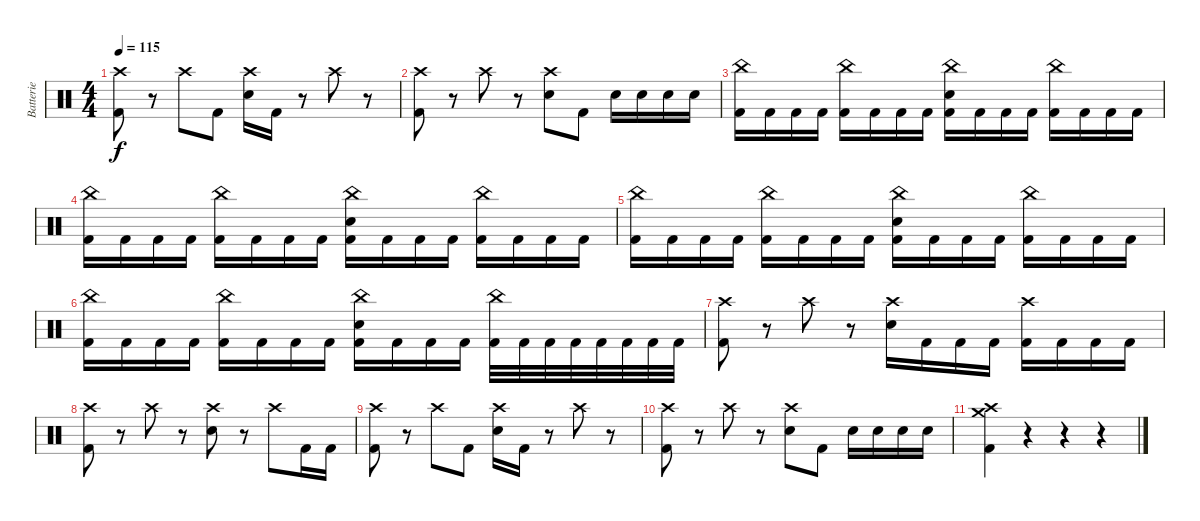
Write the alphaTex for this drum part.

\track ("Batterie" "Batterie") {instrument percussion}
\staff {score}
\articulation defaults
\ts (4 4)
\tempo 115
\clef neutral
\ks c
("Kick (hit) 2" "Crash high (hit)").8{dy f} r.8 "Crash high (hit)".8 "Kick (hit) 2".8 ("Electric Snare (hit)" "Crash high (hit)").16 "Kick (hit) 2".16 r.8 "Crash high (hit)".8 r.8 |
("Kick (hit) 2" "Crash high (hit)").8 r.8 "Crash high (hit)".8 r.8 ("Electric Snare (hit)" "Crash high (hit)").8 "Kick (hit) 2".8 "Electric Snare (hit)".16 "Electric Snare (hit)".16 "Electric Snare (hit)".16 "Electric Snare (hit)".16 |
("Kick (hit) 2" "China (hit)").16 "Kick (hit) 2".16 "Kick (hit) 2".16 "Kick (hit) 2".16 ("Kick (hit) 2" "China (hit)").16 "Kick (hit) 2".16 "Kick (hit) 2".16 "Kick (hit) 2".16 ("Kick (hit) 2" "Electric Snare (hit)" "China (hit)").16 "Kick (hit) 2".16 "Kick (hit) 2".16 "Kick (hit) 2".16 ("Kick (hit) 2" "China (hit)").16 "Kick (hit) 2".16 "Kick (hit) 2".16 "Kick (hit) 2".16 |
("Kick (hit) 2" "China (hit)").16 "Kick (hit) 2".16 "Kick (hit) 2".16 "Kick (hit) 2".16 ("Kick (hit) 2" "China (hit)").16 "Kick (hit) 2".16 "Kick (hit) 2".16 "Kick (hit) 2".16 ("Kick (hit) 2" "Electric Snare (hit)" "China (hit)").16 "Kick (hit) 2".16 "Kick (hit) 2".16 "Kick (hit) 2".16 ("Kick (hit) 2" "China (hit)").16 "Kick (hit) 2".16 "Kick (hit) 2".16 "Kick (hit) 2".16 |
("Kick (hit) 2" "China (hit)").16 "Kick (hit) 2".16 "Kick (hit) 2".16 "Kick (hit) 2".16 ("Kick (hit) 2" "China (hit)").16 "Kick (hit) 2".16 "Kick (hit) 2".16 "Kick (hit) 2".16 ("Kick (hit) 2" "Electric Snare (hit)" "China (hit)").16 "Kick (hit) 2".16 "Kick (hit) 2".16 "Kick (hit) 2".16 ("Kick (hit) 2" "China (hit)").16 "Kick (hit) 2".16 "Kick (hit) 2".16 "Kick (hit) 2".16 |
("Kick (hit) 2" "China (hit)").16 "Kick (hit) 2".16 "Kick (hit) 2".16 "Kick (hit) 2".16 ("Kick (hit) 2" "China (hit)").16 "Kick (hit) 2".16 "Kick (hit) 2".16 "Kick (hit) 2".16 ("Kick (hit) 2" "Electric Snare (hit)" "China (hit)").16 "Kick (hit) 2".16 "Kick (hit) 2".16 "Kick (hit) 2".16 ("Kick (hit) 2" "China (hit)").32 "Kick (hit) 2".32 "Kick (hit) 2".32 "Kick (hit) 2".32 "Kick (hit) 2".32 "Kick (hit) 2".32 "Kick (hit) 2".32 "Kick (hit) 2".32 |
("Kick (hit) 2" "Crash high (hit)").8 r.8 "Crash high (hit)".8 r.8 ("Electric Snare (hit)" "Crash high (hit)").16 "Kick (hit) 2".16 "Kick (hit) 2".16 "Kick (hit) 2".16 ("Kick (hit) 2" "Crash high (hit)").16 "Kick (hit) 2".16 "Kick (hit) 2".16 "Kick (hit) 2".16 |
("Kick (hit) 2" "Crash high (hit)").8 r.8 "Crash high (hit)".8 r.8 ("Electric Snare (hit)" "Crash high (hit)").8 r.8 "Crash high (hit)".8 "Kick (hit) 2".16 "Kick (hit) 2".16 |
("Kick (hit) 2" "Crash high (hit)").8 r.8 "Crash high (hit)".8 "Kick (hit) 2".8 ("Electric Snare (hit)" "Crash high (hit)").16 "Kick (hit) 2".16 r.8 "Crash high (hit)".8 r.8 |
("Kick (hit) 2" "Crash high (hit)").8 r.8 "Crash high (hit)".8 r.8 ("Electric Snare (hit)" "Crash high (hit)").8 "Kick (hit) 2".8 "Electric Snare (hit)".16 "Electric Snare (hit)".16 "Electric Snare (hit)".16 "Electric Snare (hit)".16 |
("Kick (hit) 2" "Crash medium (hit)" "Crash high (hit)").4 r.4 r.4 r.4
